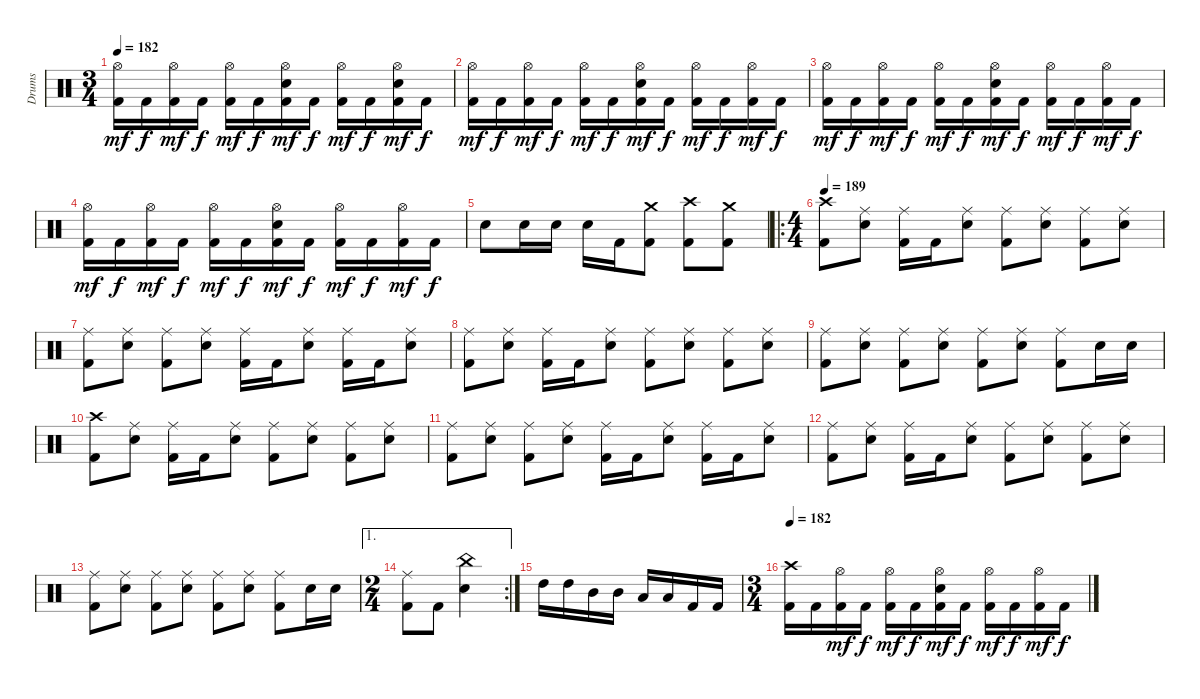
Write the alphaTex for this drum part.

\track ("Drums" "Drums") {instrument percussion}
\staff {score}
\articulation defaults
\ts (3 4)
\tempo 182
\clef neutral
\ks c
("Hi-Hat (open)" "Kick (hit) 2").16{dy mf} "Kick (hit) 2".16{dy f} ("Hi-Hat (open)" "Kick (hit) 2").16{dy mf} "Kick (hit) 2".16{dy f} ("Hi-Hat (open)" "Kick (hit) 2").16{dy mf} "Kick (hit) 2".16{dy f} ("Hi-Hat (open)" "Electric Snare (hit)" "Kick (hit) 2").16{dy mf} "Kick (hit) 2".16{dy f} ("Hi-Hat (open)" "Kick (hit) 2").16{dy mf} "Kick (hit) 2".16{dy f} ("Hi-Hat (open)" "Electric Snare (hit)" "Kick (hit) 2").16{dy mf} "Kick (hit) 2".16{dy f} |
("Hi-Hat (open)" "Kick (hit) 2").16{dy mf} "Kick (hit) 2".16{dy f} ("Hi-Hat (open)" "Kick (hit) 2").16{dy mf} "Kick (hit) 2".16{dy f} ("Hi-Hat (open)" "Kick (hit) 2").16{dy mf} "Kick (hit) 2".16{dy f} ("Hi-Hat (open)" "Electric Snare (hit)" "Kick (hit) 2").16{dy mf} "Kick (hit) 2".16{dy f} ("Hi-Hat (open)" "Kick (hit) 2").16{dy mf} "Kick (hit) 2".16{dy f} ("Hi-Hat (open)" "Kick (hit) 2").16{dy mf} "Kick (hit) 2".16{dy f} |
("Hi-Hat (open)" "Kick (hit) 2").16{dy mf} "Kick (hit) 2".16{dy f} ("Hi-Hat (open)" "Kick (hit) 2").16{dy mf} "Kick (hit) 2".16{dy f} ("Hi-Hat (open)" "Kick (hit) 2").16{dy mf} "Kick (hit) 2".16{dy f} ("Hi-Hat (open)" "Electric Snare (hit)" "Kick (hit) 2").16{dy mf} "Kick (hit) 2".16{dy f} ("Hi-Hat (open)" "Kick (hit) 2").16{dy mf} "Kick (hit) 2".16{dy f} ("Hi-Hat (open)" "Kick (hit) 2").16{dy mf} "Kick (hit) 2".16{dy f} |
("Hi-Hat (open)" "Kick (hit) 2").16{dy mf} "Kick (hit) 2".16{dy f} ("Hi-Hat (open)" "Kick (hit) 2").16{dy mf} "Kick (hit) 2".16{dy f} ("Hi-Hat (open)" "Kick (hit) 2").16{dy mf} "Kick (hit) 2".16{dy f} ("Hi-Hat (open)" "Electric Snare (hit)" "Kick (hit) 2").16{dy mf} "Kick (hit) 2".16{dy f} ("Hi-Hat (open)" "Kick (hit) 2").16{dy mf} "Kick (hit) 2".16{dy f} ("Hi-Hat (open)" "Kick (hit) 2").16{dy mf} "Kick (hit) 2".16{dy f} |
"Electric Snare (hit)".8 "Electric Snare (hit)".16 "Electric Snare (hit)".16 "Electric Snare (hit)".16 "Kick (hit) 2".16 ("Crash medium (hit)" "Kick (hit) 2").8 ("Crash high (hit)" "Kick (hit) 2").8 ("Crash medium (hit)" "Kick (hit) 2").8 |
\ro
\ts (4 4)
\tempo 189
("Crash high (hit)" "Kick (hit) 2").8 ("Ride (middle)" "Electric Snare (hit)").8 ("Ride (middle)" "Kick (hit) 2").16 "Kick (hit) 2".16 ("Ride (middle)" "Electric Snare (hit)").8 ("Ride (middle)" "Kick (hit) 2").8 ("Ride (middle)" "Electric Snare (hit)").8 ("Ride (middle)" "Kick (hit) 2").8 ("Ride (middle)" "Electric Snare (hit)").8 |
("Ride (middle)" "Kick (hit) 2").8 ("Ride (middle)" "Electric Snare (hit)").8 ("Ride (middle)" "Kick (hit) 2").8 ("Ride (middle)" "Electric Snare (hit)").8 ("Ride (middle)" "Kick (hit) 2").16 "Kick (hit) 2".16 ("Ride (middle)" "Electric Snare (hit)").8 ("Ride (middle)" "Kick (hit) 2").16 "Kick (hit) 2".16 ("Ride (middle)" "Electric Snare (hit)").8 |
("Ride (middle)" "Kick (hit) 2").8 ("Ride (middle)" "Electric Snare (hit)").8 ("Ride (middle)" "Kick (hit) 2").16 "Kick (hit) 2".16 ("Ride (middle)" "Electric Snare (hit)").8 ("Ride (middle)" "Kick (hit) 2").8 ("Ride (middle)" "Electric Snare (hit)").8 ("Ride (middle)" "Kick (hit) 2").8 ("Ride (middle)" "Electric Snare (hit)").8 |
("Ride (middle)" "Kick (hit) 2").8 ("Ride (middle)" "Electric Snare (hit)").8 ("Ride (middle)" "Kick (hit) 2").8 ("Ride (middle)" "Electric Snare (hit)").8 ("Ride (middle)" "Kick (hit) 2").8 ("Ride (middle)" "Electric Snare (hit)").8 ("Ride (middle)" "Kick (hit) 2").8 "Electric Snare (hit)".16 "Electric Snare (hit)".16 |
("Crash high (hit)" "Kick (hit) 2").8 ("Ride (middle)" "Electric Snare (hit)").8 ("Ride (middle)" "Kick (hit) 2").16 "Kick (hit) 2".16 ("Ride (middle)" "Electric Snare (hit)").8 ("Ride (middle)" "Kick (hit) 2").8 ("Ride (middle)" "Electric Snare (hit)").8 ("Ride (middle)" "Kick (hit) 2").8 ("Ride (middle)" "Electric Snare (hit)").8 |
("Ride (middle)" "Kick (hit) 2").8 ("Ride (middle)" "Electric Snare (hit)").8 ("Ride (middle)" "Kick (hit) 2").8 ("Ride (middle)" "Electric Snare (hit)").8 ("Ride (middle)" "Kick (hit) 2").16 "Kick (hit) 2".16 ("Ride (middle)" "Electric Snare (hit)").8 ("Ride (middle)" "Kick (hit) 2").16 "Kick (hit) 2".16 ("Ride (middle)" "Electric Snare (hit)").8 |
("Ride (middle)" "Kick (hit) 2").8 ("Ride (middle)" "Electric Snare (hit)").8 ("Ride (middle)" "Kick (hit) 2").16 "Kick (hit) 2".16 ("Ride (middle)" "Electric Snare (hit)").8 ("Ride (middle)" "Kick (hit) 2").8 ("Ride (middle)" "Electric Snare (hit)").8 ("Ride (middle)" "Kick (hit) 2").8 ("Ride (middle)" "Electric Snare (hit)").8 |
("Ride (middle)" "Kick (hit) 2").8 ("Ride (middle)" "Electric Snare (hit)").8 ("Ride (middle)" "Kick (hit) 2").8 ("Ride (middle)" "Electric Snare (hit)").8 ("Ride (middle)" "Kick (hit) 2").8 ("Ride (middle)" "Electric Snare (hit)").8 ("Ride (middle)" "Kick (hit) 2").8 "Electric Snare (hit)".16 "Electric Snare (hit)".16 |
\ae 1
\rc 2
\ts (2 4)
("Ride (middle)" "Kick (hit) 2").8 "Kick (hit) 2".8 ("China (hit)" "Electric Snare (hit)").4 |
"High Tom (hit)".16 "High Tom (hit)".16 "Mid Tom (hit)".16 "Mid Tom (hit)".16 "Low Tom (hit)".16 "Low Tom (hit)".16 "Kick (hit) 2".16 "Kick (hit) 2".16 |
\ts (3 4)
\tempo 182
("Crash high (hit)" "Kick (hit) 2").16 "Kick (hit) 2".16 ("Hi-Hat (open)" "Kick (hit) 2").16{dy mf} "Kick (hit) 2".16{dy f} ("Hi-Hat (open)" "Kick (hit) 2").16{dy mf} "Kick (hit) 2".16{dy f} ("Hi-Hat (open)" "Electric Snare (hit)" "Kick (hit) 2").16{dy mf} "Kick (hit) 2".16{dy f} ("Hi-Hat (open)" "Kick (hit) 2").16{dy mf} "Kick (hit) 2".16{dy f} ("Hi-Hat (open)" "Kick (hit) 2").16{dy mf} "Kick (hit) 2".16{dy f}
